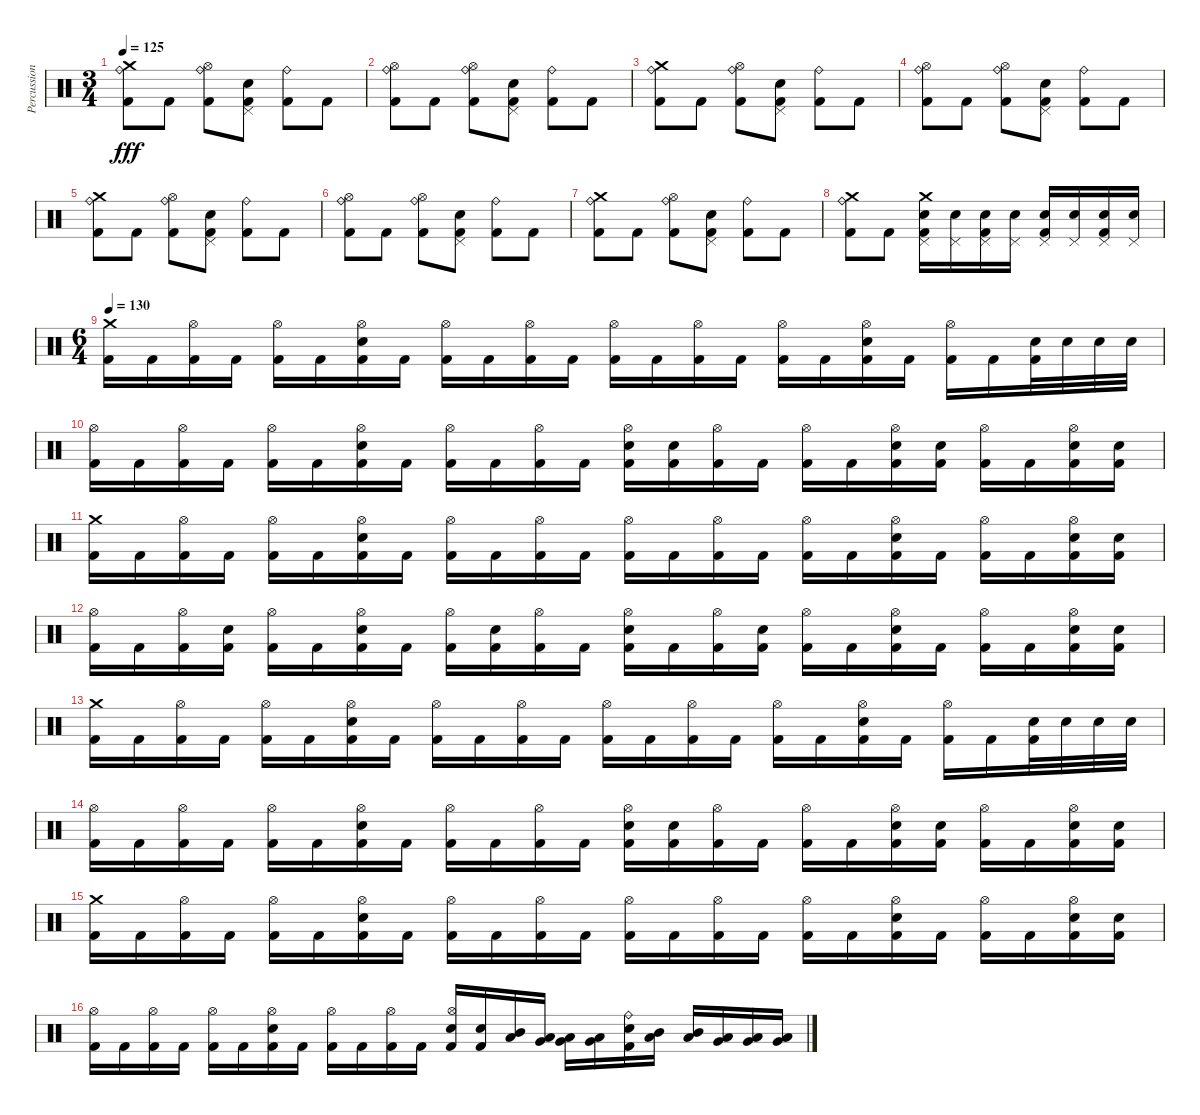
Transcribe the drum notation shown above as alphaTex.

\track ("Percussion" "Percussion") {instrument percussion}
\staff
\articulation defaults
\ts (3 4)
\tempo 125
\clef neutral
\ks c
("Crash medium (hit)" "Ride (bell)" "Kick (hit) 2").8{dy fff} "Kick (hit) 2".8 ("Ride (bell)" "Hi-Hat (open)" "Kick (hit) 2").8 ("Pedal Hi-Hat (hit)" "Snare (hit) 2" "Kick (hit) 2").8 ("Ride (bell)" "Kick (hit) 2").8 "Kick (hit) 2".8 |
("Ride (bell)" "Hi-Hat (open)" "Kick (hit) 2").8 "Kick (hit) 2".8 ("Ride (bell)" "Hi-Hat (open)" "Kick (hit) 2").8 ("Pedal Hi-Hat (hit)" "Snare (hit) 2" "Kick (hit) 2").8 ("Ride (bell)" "Kick (hit) 2").8 "Kick (hit) 2".8 |
("Crash medium (hit)" "Ride (bell)" "Kick (hit) 2").8 "Kick (hit) 2".8 ("Ride (bell)" "Hi-Hat (open)" "Kick (hit) 2").8 ("Pedal Hi-Hat (hit)" "Snare (hit) 2" "Kick (hit) 2").8 ("Ride (bell)" "Kick (hit) 2").8 "Kick (hit) 2".8 |
("Ride (bell)" "Hi-Hat (open)" "Kick (hit) 2").8 "Kick (hit) 2".8 ("Ride (bell)" "Hi-Hat (open)" "Kick (hit) 2").8 ("Pedal Hi-Hat (hit)" "Snare (hit) 2" "Kick (hit) 2").8 ("Ride (bell)" "Kick (hit) 2").8 "Kick (hit) 2".8 |
("Crash medium (hit)" "Ride (bell)" "Kick (hit) 2").8 "Kick (hit) 2".8 ("Ride (bell)" "Hi-Hat (open)" "Kick (hit) 2").8 ("Pedal Hi-Hat (hit)" "Snare (hit) 2" "Kick (hit) 2").8 ("Ride (bell)" "Kick (hit) 2").8 "Kick (hit) 2".8 |
("Ride (bell)" "Hi-Hat (open)" "Kick (hit) 2").8 "Kick (hit) 2".8 ("Ride (bell)" "Hi-Hat (open)" "Kick (hit) 2").8 ("Pedal Hi-Hat (hit)" "Snare (hit) 2" "Kick (hit) 2").8 ("Ride (bell)" "Kick (hit) 2").8 "Kick (hit) 2".8 |
("Crash medium (hit)" "Ride (bell)" "Kick (hit) 2").8 "Kick (hit) 2".8 ("Ride (bell)" "Hi-Hat (open)" "Kick (hit) 2").8 ("Pedal Hi-Hat (hit)" "Snare (hit) 2" "Kick (hit) 2").8 ("Ride (bell)" "Kick (hit) 2").8 "Kick (hit) 2".8 |
("Crash medium (hit)" "Ride (bell)" "Kick (hit) 2").8 "Kick (hit) 2".8 ("Crash medium (hit)" "Pedal Hi-Hat (hit)" "Snare (hit) 2" "Kick (hit) 2").16 ("Pedal Hi-Hat (hit)" "Snare (hit) 2").16 ("Pedal Hi-Hat (hit)" "Snare (hit) 2" "Kick (hit) 2").16 ("Pedal Hi-Hat (hit)" "Snare (hit) 2").16 ("Pedal Hi-Hat (hit)" "Snare (hit) 2" "Kick (hit) 2").16 ("Pedal Hi-Hat (hit)" "Snare (hit) 2").16 ("Pedal Hi-Hat (hit)" "Snare (hit) 2" "Kick (hit) 2").16 ("Pedal Hi-Hat (hit)" "Snare (hit) 2").16 |
\ts (6 4)
\tempo 130
("Crash medium (hit)" "Kick (hit) 2").16 "Kick (hit) 2".16 ("Hi-Hat (open)" "Kick (hit) 2").16 "Kick (hit) 2".16 ("Hi-Hat (open)" "Kick (hit) 2").16 "Kick (hit) 2".16 ("Hi-Hat (open)" "Snare (hit) 2" "Kick (hit) 2").16 "Kick (hit) 2".16 ("Hi-Hat (open)" "Kick (hit) 2").16 "Kick (hit) 2".16 ("Hi-Hat (open)" "Kick (hit) 2").16 "Kick (hit) 2".16 ("Hi-Hat (open)" "Kick (hit) 2").16 "Kick (hit) 2".16 ("Hi-Hat (open)" "Kick (hit) 2").16 "Kick (hit) 2".16 ("Hi-Hat (open)" "Kick (hit) 2").16 "Kick (hit) 2".16 ("Hi-Hat (open)" "Snare (hit) 2" "Kick (hit) 2").16 "Kick (hit) 2".16 ("Hi-Hat (open)" "Kick (hit) 2").16 "Kick (hit) 2".16 ("Snare (hit) 2" "Kick (hit) 2").32 "Snare (hit) 2".32 "Snare (hit) 2".32 "Snare (hit) 2".32 |
("Hi-Hat (open)" "Kick (hit) 2").16 "Kick (hit) 2".16 ("Hi-Hat (open)" "Kick (hit) 2").16 "Kick (hit) 2".16 ("Hi-Hat (open)" "Kick (hit) 2").16 "Kick (hit) 2".16 ("Hi-Hat (open)" "Snare (hit) 2" "Kick (hit) 2").16 "Kick (hit) 2".16 ("Hi-Hat (open)" "Kick (hit) 2").16 "Kick (hit) 2".16 ("Hi-Hat (open)" "Kick (hit) 2").16 "Kick (hit) 2".16 ("Hi-Hat (open)" "Snare (hit) 2" "Kick (hit) 2").16 ("Snare (hit) 2" "Kick (hit) 2").16 ("Hi-Hat (open)" "Kick (hit) 2").16 "Kick (hit) 2".16 ("Hi-Hat (open)" "Kick (hit) 2").16 "Kick (hit) 2".16 ("Hi-Hat (open)" "Snare (hit) 2" "Kick (hit) 2").16 ("Snare (hit) 2" "Kick (hit) 2").16 ("Hi-Hat (open)" "Kick (hit) 2").16 "Kick (hit) 2".16 ("Hi-Hat (open)" "Snare (hit) 2" "Kick (hit) 2").16 ("Snare (hit) 2" "Kick (hit) 2").16 |
("Crash medium (hit)" "Kick (hit) 2").16 "Kick (hit) 2".16 ("Hi-Hat (open)" "Kick (hit) 2").16 "Kick (hit) 2".16 ("Hi-Hat (open)" "Kick (hit) 2").16 "Kick (hit) 2".16 ("Hi-Hat (open)" "Snare (hit) 2" "Kick (hit) 2").16 "Kick (hit) 2".16 ("Hi-Hat (open)" "Kick (hit) 2").16 "Kick (hit) 2".16 ("Hi-Hat (open)" "Kick (hit) 2").16 "Kick (hit) 2".16 ("Hi-Hat (open)" "Kick (hit) 2").16 "Kick (hit) 2".16 ("Hi-Hat (open)" "Kick (hit) 2").16 "Kick (hit) 2".16 ("Hi-Hat (open)" "Kick (hit) 2").16 "Kick (hit) 2".16 ("Hi-Hat (open)" "Snare (hit) 2" "Kick (hit) 2").16 "Kick (hit) 2".16 ("Hi-Hat (open)" "Kick (hit) 2").16 "Kick (hit) 2".16 ("Hi-Hat (open)" "Snare (hit) 2" "Kick (hit) 2").16 ("Snare (hit) 2" "Kick (hit) 2").16 |
("Hi-Hat (open)" "Kick (hit) 2").16 "Kick (hit) 2".16 ("Hi-Hat (open)" "Kick (hit) 2").16 ("Snare (hit) 2" "Kick (hit) 2").16 ("Hi-Hat (open)" "Kick (hit) 2").16 "Kick (hit) 2".16 ("Hi-Hat (open)" "Snare (hit) 2" "Kick (hit) 2").16 "Kick (hit) 2".16 ("Hi-Hat (open)" "Kick (hit) 2").16 ("Snare (hit) 2" "Kick (hit) 2").16 ("Hi-Hat (open)" "Kick (hit) 2").16 "Kick (hit) 2".16 ("Hi-Hat (open)" "Snare (hit) 2" "Kick (hit) 2").16 "Kick (hit) 2".16 ("Hi-Hat (open)" "Kick (hit) 2").16 ("Snare (hit) 2" "Kick (hit) 2").16 ("Hi-Hat (open)" "Kick (hit) 2").16 "Kick (hit) 2".16 ("Hi-Hat (open)" "Snare (hit) 2" "Kick (hit) 2").16 "Kick (hit) 2".16 ("Hi-Hat (open)" "Kick (hit) 2").16 "Kick (hit) 2".16 ("Hi-Hat (open)" "Snare (hit) 2" "Kick (hit) 2").16 ("Snare (hit) 2" "Kick (hit) 2").16 |
("Crash medium (hit)" "Kick (hit) 2").16 "Kick (hit) 2".16 ("Hi-Hat (open)" "Kick (hit) 2").16 "Kick (hit) 2".16 ("Hi-Hat (open)" "Kick (hit) 2").16 "Kick (hit) 2".16 ("Hi-Hat (open)" "Snare (hit) 2" "Kick (hit) 2").16 "Kick (hit) 2".16 ("Hi-Hat (open)" "Kick (hit) 2").16 "Kick (hit) 2".16 ("Hi-Hat (open)" "Kick (hit) 2").16 "Kick (hit) 2".16 ("Hi-Hat (open)" "Kick (hit) 2").16 "Kick (hit) 2".16 ("Hi-Hat (open)" "Kick (hit) 2").16 "Kick (hit) 2".16 ("Hi-Hat (open)" "Kick (hit) 2").16 "Kick (hit) 2".16 ("Hi-Hat (open)" "Snare (hit) 2" "Kick (hit) 2").16 "Kick (hit) 2".16 ("Hi-Hat (open)" "Kick (hit) 2").16 "Kick (hit) 2".16 ("Snare (hit) 2" "Kick (hit) 2").32 "Snare (hit) 2".32 "Snare (hit) 2".32 "Snare (hit) 2".32 |
("Hi-Hat (open)" "Kick (hit) 2").16 "Kick (hit) 2".16 ("Hi-Hat (open)" "Kick (hit) 2").16 "Kick (hit) 2".16 ("Hi-Hat (open)" "Kick (hit) 2").16 "Kick (hit) 2".16 ("Hi-Hat (open)" "Snare (hit) 2" "Kick (hit) 2").16 "Kick (hit) 2".16 ("Hi-Hat (open)" "Kick (hit) 2").16 "Kick (hit) 2".16 ("Hi-Hat (open)" "Kick (hit) 2").16 "Kick (hit) 2".16 ("Hi-Hat (open)" "Snare (hit) 2" "Kick (hit) 2").16 ("Snare (hit) 2" "Kick (hit) 2").16 ("Hi-Hat (open)" "Kick (hit) 2").16 "Kick (hit) 2".16 ("Hi-Hat (open)" "Kick (hit) 2").16 "Kick (hit) 2".16 ("Hi-Hat (open)" "Snare (hit) 2" "Kick (hit) 2").16 ("Snare (hit) 2" "Kick (hit) 2").16 ("Hi-Hat (open)" "Kick (hit) 2").16 "Kick (hit) 2".16 ("Hi-Hat (open)" "Snare (hit) 2" "Kick (hit) 2").16 ("Snare (hit) 2" "Kick (hit) 2").16 |
("Crash medium (hit)" "Kick (hit) 2").16 "Kick (hit) 2".16 ("Hi-Hat (open)" "Kick (hit) 2").16 "Kick (hit) 2".16 ("Hi-Hat (open)" "Kick (hit) 2").16 "Kick (hit) 2".16 ("Hi-Hat (open)" "Snare (hit) 2" "Kick (hit) 2").16 "Kick (hit) 2".16 ("Hi-Hat (open)" "Kick (hit) 2").16 "Kick (hit) 2".16 ("Hi-Hat (open)" "Kick (hit) 2").16 "Kick (hit) 2".16 ("Hi-Hat (open)" "Kick (hit) 2").16 "Kick (hit) 2".16 ("Hi-Hat (open)" "Kick (hit) 2").16 "Kick (hit) 2".16 ("Hi-Hat (open)" "Kick (hit) 2").16 "Kick (hit) 2".16 ("Hi-Hat (open)" "Snare (hit) 2" "Kick (hit) 2").16 "Kick (hit) 2".16 ("Hi-Hat (open)" "Kick (hit) 2").16 "Kick (hit) 2".16 ("Hi-Hat (open)" "Snare (hit) 2" "Kick (hit) 2").16 ("Snare (hit) 2" "Kick (hit) 2").16 |
("Hi-Hat (open)" "Kick (hit) 2").16 "Kick (hit) 2".16 ("Hi-Hat (open)" "Kick (hit) 2").16 "Kick (hit) 2".16 ("Hi-Hat (open)" "Kick (hit) 2").16 "Kick (hit) 2".16 ("Hi-Hat (open)" "Snare (hit) 2" "Kick (hit) 2").16 "Kick (hit) 2".16 ("Hi-Hat (open)" "Kick (hit) 2").16 "Kick (hit) 2".16 ("Hi-Hat (open)" "Kick (hit) 2").16 "Kick (hit) 2".16 ("Hi-Hat (open)" "Snare (hit) 2" "Kick (hit) 2").16 ("Snare (hit) 2" "Kick (hit) 2").16 ("Mid Tom (hit)" "Low Tom (hit)").16 ("Low Tom (hit)" "Very Low Tom (hit)").16 ("Low Tom (hit)" "Very Low Tom (hit)").16 ("Very Low Tom (hit)" "Low Floor Tom (hit)").16 ("Ride (bell)" "Snare (hit) 2" "Kick (hit) 2").16 ("Mid Tom (hit)" "Low Tom (hit)").16 ("Mid Tom (hit)" "Low Tom (hit)").16 ("Low Tom (hit)" "Very Low Tom (hit)").16 ("Low Tom (hit)" "Very Low Tom (hit)").16 ("Very Low Tom (hit)" "Low Floor Tom (hit)").16
